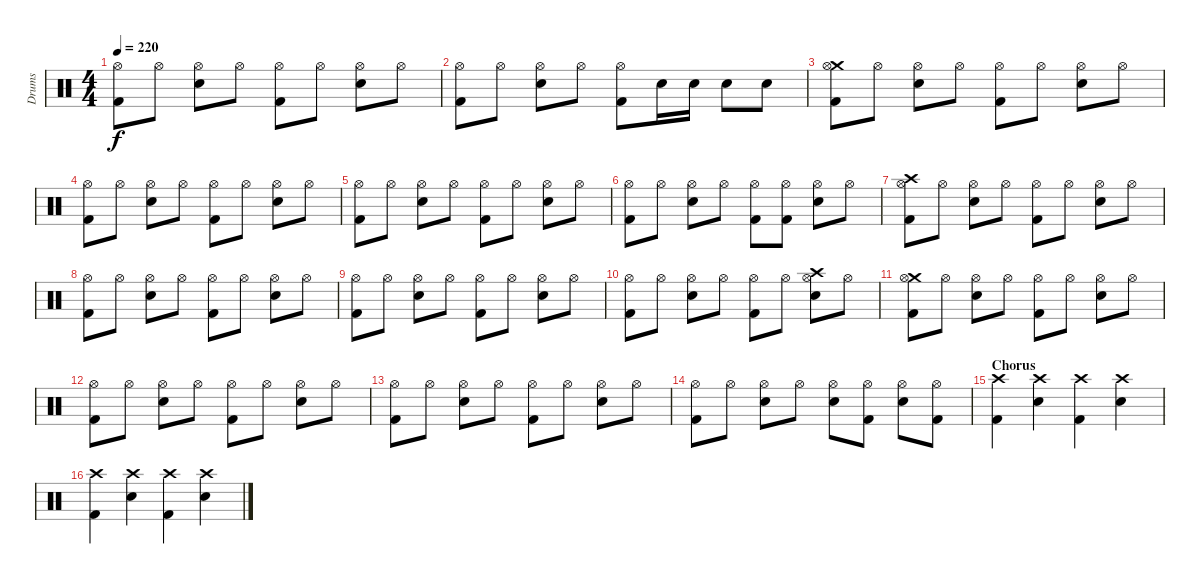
\track ("Drums" "Drums") {instrument percussion}
\staff {score}
\articulation defaults
\ts (4 4)
\tempo 220
\clef neutral
\ks c
("Hi-Hat (open)" "Kick (hit) 2").8{dy f} "Hi-Hat (open)".8 ("Hi-Hat (open)" "Electric Snare (hit)").8 "Hi-Hat (open)".8 ("Hi-Hat (open)" "Kick (hit) 2").8 "Hi-Hat (open)".8 ("Hi-Hat (open)" "Electric Snare (hit)").8 "Hi-Hat (open)".8 |
("Hi-Hat (open)" "Kick (hit) 2").8 "Hi-Hat (open)".8 ("Hi-Hat (open)" "Electric Snare (hit)").8 "Hi-Hat (open)".8 ("Hi-Hat (open)" "Kick (hit) 2").8 "Electric Snare (hit)".16 "Electric Snare (hit)".16 "Electric Snare (hit)".8 "Electric Snare (hit)".8 |
("Crash medium (hit)" "Hi-Hat (open)" "Kick (hit) 2").8 "Hi-Hat (open)".8 ("Hi-Hat (open)" "Electric Snare (hit)").8 "Hi-Hat (open)".8 ("Hi-Hat (open)" "Kick (hit) 2").8 "Hi-Hat (open)".8 ("Hi-Hat (open)" "Electric Snare (hit)").8 "Hi-Hat (open)".8 |
("Hi-Hat (open)" "Kick (hit) 2").8 "Hi-Hat (open)".8 ("Hi-Hat (open)" "Electric Snare (hit)").8 "Hi-Hat (open)".8 ("Hi-Hat (open)" "Kick (hit) 2").8 "Hi-Hat (open)".8 ("Hi-Hat (open)" "Electric Snare (hit)").8 "Hi-Hat (open)".8 |
("Hi-Hat (open)" "Kick (hit) 2").8 "Hi-Hat (open)".8 ("Hi-Hat (open)" "Electric Snare (hit)").8 "Hi-Hat (open)".8 ("Hi-Hat (open)" "Kick (hit) 2").8 "Hi-Hat (open)".8 ("Hi-Hat (open)" "Electric Snare (hit)").8 "Hi-Hat (open)".8 |
("Hi-Hat (open)" "Kick (hit) 2").8 "Hi-Hat (open)".8 ("Hi-Hat (open)" "Electric Snare (hit)").8 "Hi-Hat (open)".8 ("Hi-Hat (open)" "Kick (hit) 2").8 ("Hi-Hat (open)" "Kick (hit) 2").8 ("Hi-Hat (open)" "Electric Snare (hit)").8 "Hi-Hat (open)".8 |
("Crash high (hit)" "Hi-Hat (open)" "Kick (hit) 2").8 "Hi-Hat (open)".8 ("Hi-Hat (open)" "Electric Snare (hit)").8 "Hi-Hat (open)".8 ("Hi-Hat (open)" "Kick (hit) 2").8 "Hi-Hat (open)".8 ("Hi-Hat (open)" "Electric Snare (hit)").8 "Hi-Hat (open)".8 |
("Hi-Hat (open)" "Kick (hit) 2").8 "Hi-Hat (open)".8 ("Hi-Hat (open)" "Electric Snare (hit)").8 "Hi-Hat (open)".8 ("Hi-Hat (open)" "Kick (hit) 2").8 "Hi-Hat (open)".8 ("Hi-Hat (open)" "Electric Snare (hit)").8 "Hi-Hat (open)".8 |
("Hi-Hat (open)" "Kick (hit) 2").8 "Hi-Hat (open)".8 ("Hi-Hat (open)" "Electric Snare (hit)").8 "Hi-Hat (open)".8 ("Hi-Hat (open)" "Kick (hit) 2").8 "Hi-Hat (open)".8 ("Hi-Hat (open)" "Electric Snare (hit)").8 "Hi-Hat (open)".8 |
("Hi-Hat (open)" "Kick (hit) 2").8 "Hi-Hat (open)".8 ("Hi-Hat (open)" "Electric Snare (hit)").8 "Hi-Hat (open)".8 ("Hi-Hat (open)" "Kick (hit) 2").8 "Hi-Hat (open)".8 ("Crash high (hit)" "Hi-Hat (open)" "Electric Snare (hit)").8 "Hi-Hat (open)".8 |
("Crash medium (hit)" "Hi-Hat (open)" "Kick (hit) 2").8 "Hi-Hat (open)".8 ("Hi-Hat (open)" "Electric Snare (hit)").8 "Hi-Hat (open)".8 ("Hi-Hat (open)" "Kick (hit) 2").8 "Hi-Hat (open)".8 ("Hi-Hat (open)" "Electric Snare (hit)").8 "Hi-Hat (open)".8 |
("Hi-Hat (open)" "Kick (hit) 2").8 "Hi-Hat (open)".8 ("Hi-Hat (open)" "Electric Snare (hit)").8 "Hi-Hat (open)".8 ("Hi-Hat (open)" "Kick (hit) 2").8 "Hi-Hat (open)".8 ("Hi-Hat (open)" "Electric Snare (hit)").8 "Hi-Hat (open)".8 |
("Hi-Hat (open)" "Kick (hit) 2").8 "Hi-Hat (open)".8 ("Hi-Hat (open)" "Electric Snare (hit)").8 "Hi-Hat (open)".8 ("Hi-Hat (open)" "Kick (hit) 2").8 "Hi-Hat (open)".8 ("Hi-Hat (open)" "Electric Snare (hit)").8 "Hi-Hat (open)".8 |
("Hi-Hat (open)" "Kick (hit) 2").8 "Hi-Hat (open)".8 ("Hi-Hat (open)" "Electric Snare (hit)").8 "Hi-Hat (open)".8 ("Hi-Hat (open)" "Electric Snare (hit)").8 ("Hi-Hat (open)" "Kick (hit) 2").8 ("Hi-Hat (open)" "Electric Snare (hit)").8 ("Hi-Hat (open)" "Kick (hit) 2").8 |
\section ("" "Chorus")
("Crash high (hit)" "Kick (hit) 2").4 ("Crash high (hit)" "Electric Snare (hit)").4 ("Crash high (hit)" "Kick (hit) 2").4 ("Crash high (hit)" "Electric Snare (hit)").4 |
("Crash high (hit)" "Kick (hit) 2").4 ("Crash high (hit)" "Electric Snare (hit)").4 ("Crash high (hit)" "Kick (hit) 2").4 ("Crash high (hit)" "Electric Snare (hit)").4
